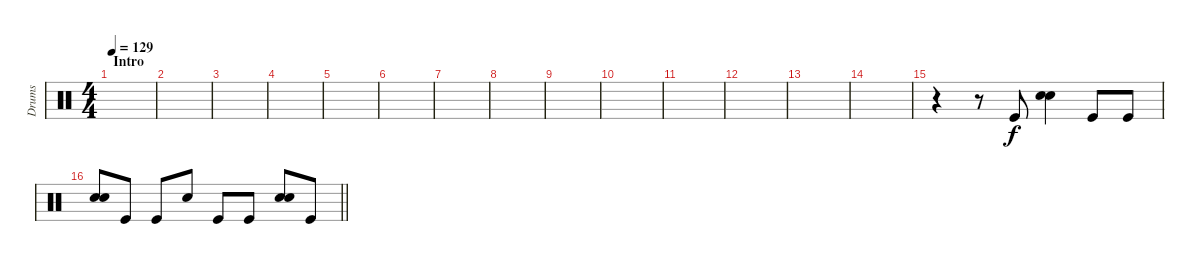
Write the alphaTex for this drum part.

\track ("Drums" "Drums") {instrument percussion}
\staff {score}
\articulation defaults
\ts (4 4)
\section ("" "Intro")
\tempo 129
\clef neutral
\ks c
|
|
|
|
|
|
|
|
|
|
|
|
|
|
r.4 r.8 "Kick (hit)".8 ("Snare (hit) 2" "Electric Snare (hit)").4 "Kick (hit)".8 "Kick (hit)".8 |
\barLineRight lightlight
("Snare (hit) 2" "Electric Snare (hit)").8 "Kick (hit)".8 "Kick (hit)".8 "Snare (hit) 2".8 "Kick (hit)".8 "Kick (hit)".8 ("Snare (hit) 2" "Electric Snare (hit)").8 "Kick (hit)".8
